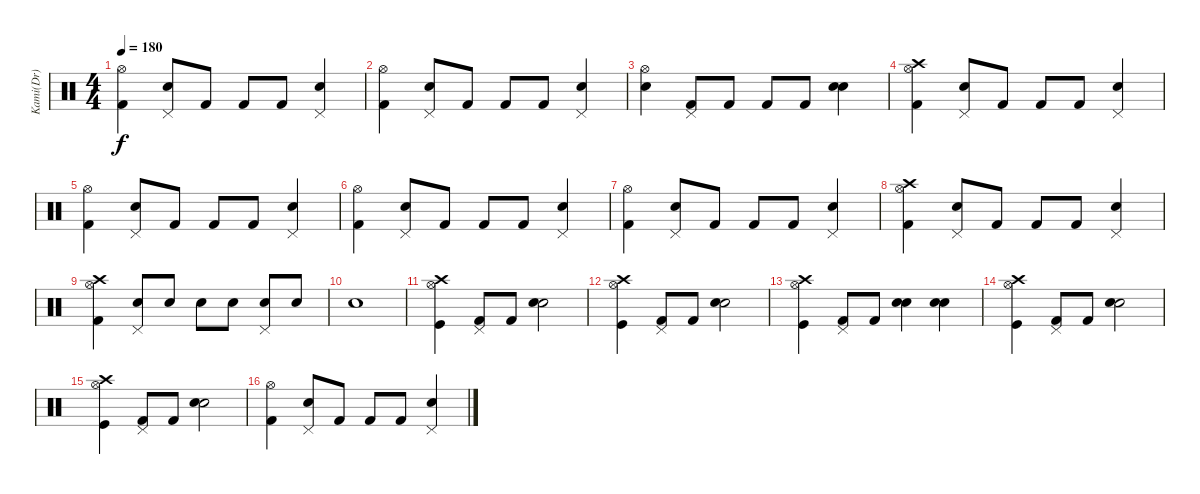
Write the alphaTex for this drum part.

\track ("Kami(Dr)" "Kami(Dr)") {instrument percussion}
\staff {score}
\articulation defaults
\ts (4 4)
\tempo 180
\clef neutral
\ks c
("Kick (hit) 2" "Hi-Hat (open)").4{dy f} ("Electric Snare (hit)" "Pedal Hi-Hat (hit)").8 "Kick (hit) 2".8 "Kick (hit) 2".8 "Kick (hit) 2".8 ("Electric Snare (hit)" "Pedal Hi-Hat (hit)").4 |
("Kick (hit) 2" "Hi-Hat (open)").4 ("Electric Snare (hit)" "Pedal Hi-Hat (hit)").8 "Kick (hit) 2".8 "Kick (hit) 2".8 "Kick (hit) 2".8 ("Electric Snare (hit)" "Pedal Hi-Hat (hit)").4 |
("Snare (hit) 2" "Hi-Hat (open)").4 ("Kick (hit) 2" "Pedal Hi-Hat (hit)").8 "Kick (hit) 2".8 "Kick (hit) 2".8 "Kick (hit) 2".8 ("Electric Snare (hit)" "Snare (hit) 2").4 |
("Kick (hit) 2" "Hi-Hat (open)" "Crash high (hit)").4 ("Electric Snare (hit)" "Pedal Hi-Hat (hit)").8 "Kick (hit) 2".8 "Kick (hit) 2".8 "Kick (hit) 2".8 ("Electric Snare (hit)" "Pedal Hi-Hat (hit)").4 |
("Kick (hit) 2" "Hi-Hat (open)").4 ("Electric Snare (hit)" "Pedal Hi-Hat (hit)").8 "Kick (hit) 2".8 "Kick (hit) 2".8 "Kick (hit) 2".8 ("Electric Snare (hit)" "Pedal Hi-Hat (hit)").4 |
("Kick (hit) 2" "Hi-Hat (open)").4 ("Electric Snare (hit)" "Pedal Hi-Hat (hit)").8 "Kick (hit) 2".8 "Kick (hit) 2".8 "Kick (hit) 2".8 ("Electric Snare (hit)" "Pedal Hi-Hat (hit)").4 |
("Kick (hit) 2" "Hi-Hat (open)").4 ("Electric Snare (hit)" "Pedal Hi-Hat (hit)").8 "Kick (hit) 2".8 "Kick (hit) 2".8 "Kick (hit) 2".8 ("Electric Snare (hit)" "Pedal Hi-Hat (hit)").4 |
("Kick (hit) 2" "Hi-Hat (open)" "Crash high (hit)").4 ("Electric Snare (hit)" "Pedal Hi-Hat (hit)").8 "Kick (hit) 2".8 "Kick (hit) 2".8 "Kick (hit) 2".8 ("Electric Snare (hit)" "Pedal Hi-Hat (hit)").4 |
("Kick (hit) 2" "Hi-Hat (open)" "Crash high (hit)").4 ("Electric Snare (hit)" "Pedal Hi-Hat (hit)").8 "Electric Snare (hit)".8 "Electric Snare (hit)".8 "Electric Snare (hit)".8 ("Electric Snare (hit)" "Pedal Hi-Hat (hit)").8 "Electric Snare (hit)".8 |
"Electric Snare (hit)".1 |
("Kick (hit)" "Hi-Hat (open)" "Crash high (hit)").4 ("Kick (hit) 2" "Pedal Hi-Hat (hit)").8 "Kick (hit) 2".8 ("Snare (hit) 2" "Metronome (bell)").2 |
("Kick (hit)" "Hi-Hat (open)" "Crash high (hit)").4 ("Kick (hit) 2" "Pedal Hi-Hat (hit)").8 "Kick (hit) 2".8 ("Snare (hit) 2" "Metronome (bell)").2 |
("Kick (hit)" "Hi-Hat (open)" "Crash high (hit)").4 ("Kick (hit) 2" "Pedal Hi-Hat (hit)").8 "Kick (hit) 2".8 ("Snare (hit) 2" "Metronome (bell)").4 ("Snare (hit) 2" "Metronome (bell)").4 |
("Kick (hit)" "Hi-Hat (open)" "Crash high (hit)").4 ("Kick (hit) 2" "Pedal Hi-Hat (hit)").8 "Kick (hit) 2".8 ("Snare (hit) 2" "Metronome (bell)").2 |
("Kick (hit)" "Hi-Hat (open)" "Crash high (hit)").4 ("Kick (hit) 2" "Pedal Hi-Hat (hit)").8 "Kick (hit) 2".8 ("Snare (hit) 2" "Metronome (bell)").2 |
("Kick (hit) 2" "Hi-Hat (open)").4 ("Electric Snare (hit)" "Pedal Hi-Hat (hit)").8 "Kick (hit) 2".8 "Kick (hit) 2".8 "Kick (hit) 2".8 ("Electric Snare (hit)" "Pedal Hi-Hat (hit)").4
